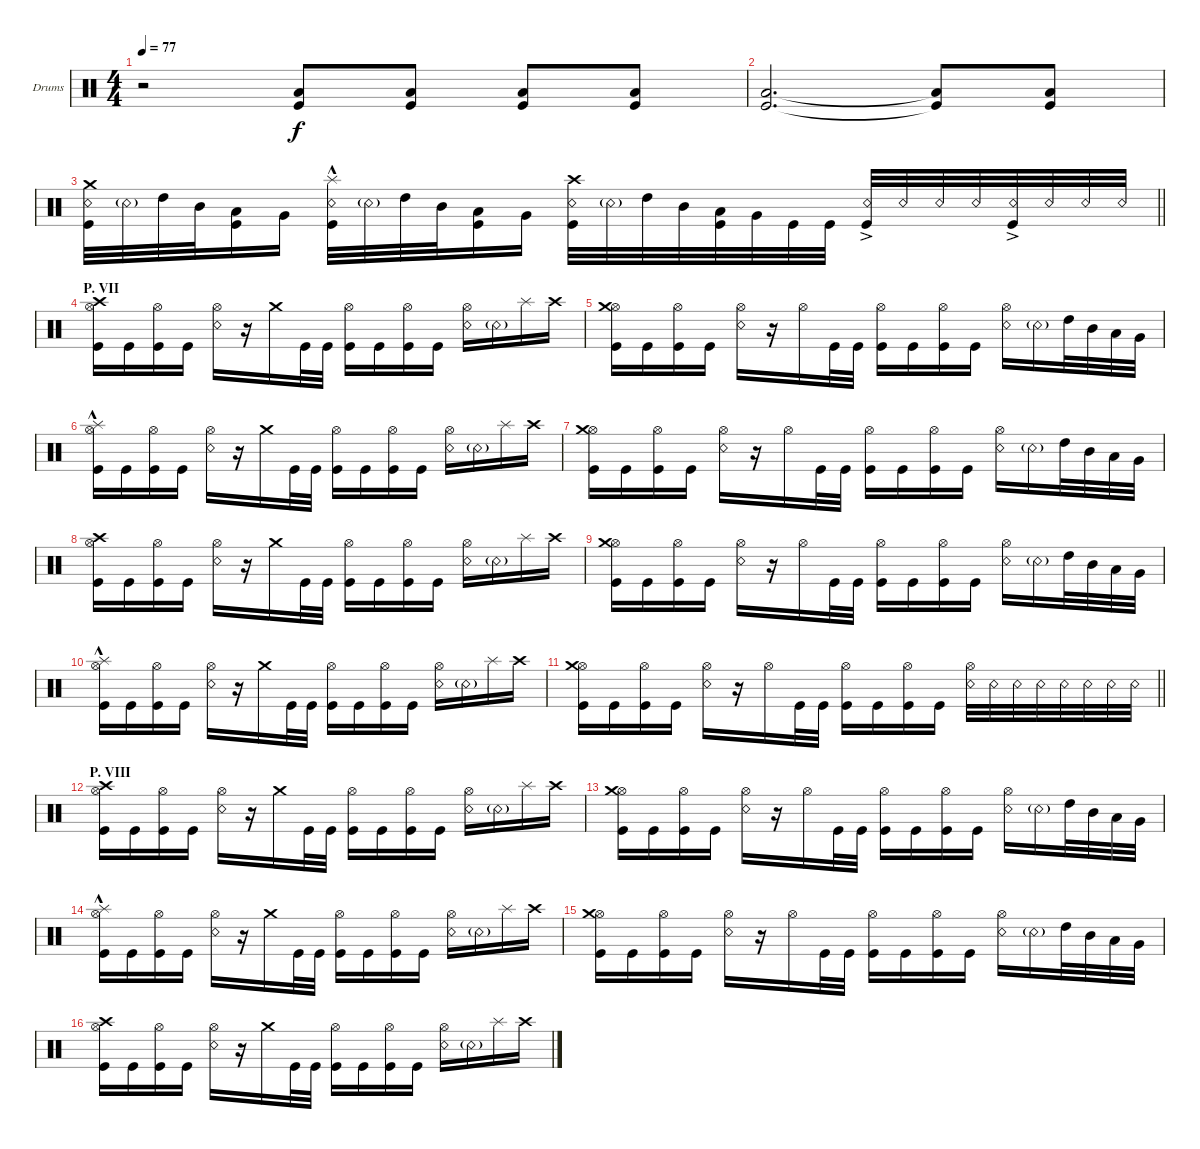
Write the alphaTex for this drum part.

\bracketExtendMode groupsimilarinstruments
\firstSystemTrackNameOrientation horizontal
\otherSystemsTrackNameOrientation horizontal
\track ("Drumkit" "Drums") {instrument percussion}
\staff {score}
\articulation defaults
\ts (4 4)
\tempo 77
\clef neutral
\ks c
r.2{dy f} ("Kick (hit)" "Low Tom (hit)").8 ("Kick (hit)" "Low Tom (hit)").8 ("Kick (hit)" "Low Tom (hit)").8 ("Kick (hit)" "Low Tom (hit)").8 |
("Kick (hit)" "Low Tom (hit)").2{d} ("Kick (hit)"{t} "Low Tom (hit)"{t}).8 ("Kick (hit)" "Low Tom (hit)").8 |
\barLineRight lightlight
("Snare (rim shot)" "Kick (hit)" "Crash medium (hit)").32 "Snare (rim shot)"{g}.32 "High Tom (hit)".32 "Mid Tom (hit)".32 ("Kick (hit)" "Low Tom (hit)").16 "Very Low Tom (hit)".16 ("Snare (rim shot)" "Kick (hit)" "Splash (hit)"{hac}).32 "Snare (rim shot)"{g}.32 "High Tom (hit)".32 "Mid Tom (hit)".32 ("Kick (hit)" "Low Tom (hit)").16 "Very Low Tom (hit)".16 ("Snare (rim shot)" "Kick (hit)" "Crash high (hit)").32 "Snare (rim shot)"{g}.32 "High Tom (hit)".32 "Mid Tom (hit)".32 ("Kick (hit)" "Low Tom (hit)").32 "Very Low Tom (hit)".32 "Kick (hit)".32 "Kick (hit)".32 ("Snare (rim shot)"{ac} "Kick (hit)").32 "Snare (rim shot)".32 "Snare (rim shot)".32 "Snare (rim shot)".32 ("Snare (rim shot)"{ac} "Kick (hit)").32 "Snare (rim shot)".32 "Snare (rim shot)".32 "Snare (rim shot)".32 |
\section ("" "P. VII")
("Hi-Hat (open)" "Kick (hit)" "Crash high (hit)").16 "Kick (hit)".16 ("Hi-Hat (open)" "Kick (hit)").16 "Kick (hit)".16 ("Hi-Hat (open)" "Snare (rim shot)").16 r.16 "Crash medium (hit)".16 "Kick (hit)".32 "Kick (hit)".32 ("Hi-Hat (open)" "Kick (hit)").16 "Kick (hit)".16 ("Hi-Hat (open)" "Kick (hit)").16 "Kick (hit)".16 ("Hi-Hat (open)" "Snare (rim shot)").16 "Snare (rim shot)"{g}.16 "Splash (hit)".16 "Crash high (hit)".16 |
("Hi-Hat (open)" "Kick (hit)" "Crash medium (hit)").16 "Kick (hit)".16 ("Hi-Hat (open)" "Kick (hit)").16 "Kick (hit)".16 ("Hi-Hat (open)" "Snare (rim shot)").16 r.16 "Hi-Hat (open)".16 "Kick (hit)".32 "Kick (hit)".32 ("Hi-Hat (open)" "Kick (hit)").16 "Kick (hit)".16 ("Hi-Hat (open)" "Kick (hit)").16 "Kick (hit)".16 ("Hi-Hat (open)" "Snare (rim shot)").16 "Snare (rim shot)"{g}.16 "High Tom (hit)".32 "Mid Tom (hit)".32 "Low Tom (hit)".32 "Very Low Tom (hit)".32 |
("Hi-Hat (open)" "Kick (hit)" "Splash (hit)"{hac}).16 "Kick (hit)".16 ("Hi-Hat (open)" "Kick (hit)").16 "Kick (hit)".16 ("Hi-Hat (open)" "Snare (rim shot)").16 r.16 "Crash medium (hit)".16 "Kick (hit)".32 "Kick (hit)".32 ("Hi-Hat (open)" "Kick (hit)").16 "Kick (hit)".16 ("Hi-Hat (open)" "Kick (hit)").16 "Kick (hit)".16 ("Hi-Hat (open)" "Snare (rim shot)").16 "Snare (rim shot)"{g}.16 "Splash (hit)".16 "Crash high (hit)".16 |
("Hi-Hat (open)" "Kick (hit)" "Crash medium (hit)").16 "Kick (hit)".16 ("Hi-Hat (open)" "Kick (hit)").16 "Kick (hit)".16 ("Hi-Hat (open)" "Snare (rim shot)").16 r.16 "Hi-Hat (open)".16 "Kick (hit)".32 "Kick (hit)".32 ("Hi-Hat (open)" "Kick (hit)").16 "Kick (hit)".16 ("Hi-Hat (open)" "Kick (hit)").16 "Kick (hit)".16 ("Hi-Hat (open)" "Snare (rim shot)").16 "Snare (rim shot)"{g}.16 "High Tom (hit)".32 "Mid Tom (hit)".32 "Low Tom (hit)".32 "Very Low Tom (hit)".32 |
("Hi-Hat (open)" "Kick (hit)" "Crash high (hit)").16 "Kick (hit)".16 ("Hi-Hat (open)" "Kick (hit)").16 "Kick (hit)".16 ("Hi-Hat (open)" "Snare (rim shot)").16 r.16 "Crash medium (hit)".16 "Kick (hit)".32 "Kick (hit)".32 ("Hi-Hat (open)" "Kick (hit)").16 "Kick (hit)".16 ("Hi-Hat (open)" "Kick (hit)").16 "Kick (hit)".16 ("Hi-Hat (open)" "Snare (rim shot)").16 "Snare (rim shot)"{g}.16 "Splash (hit)".16 "Crash high (hit)".16 |
("Hi-Hat (open)" "Kick (hit)" "Crash medium (hit)").16 "Kick (hit)".16 ("Hi-Hat (open)" "Kick (hit)").16 "Kick (hit)".16 ("Hi-Hat (open)" "Snare (rim shot)").16 r.16 "Hi-Hat (open)".16 "Kick (hit)".32 "Kick (hit)".32 ("Hi-Hat (open)" "Kick (hit)").16 "Kick (hit)".16 ("Hi-Hat (open)" "Kick (hit)").16 "Kick (hit)".16 ("Hi-Hat (open)" "Snare (rim shot)").16 "Snare (rim shot)"{g}.16 "High Tom (hit)".32 "Mid Tom (hit)".32 "Low Tom (hit)".32 "Very Low Tom (hit)".32 |
("Hi-Hat (open)" "Kick (hit)" "Splash (hit)"{hac}).16 "Kick (hit)".16 ("Hi-Hat (open)" "Kick (hit)").16 "Kick (hit)".16 ("Hi-Hat (open)" "Snare (rim shot)").16 r.16 "Crash medium (hit)".16 "Kick (hit)".32 "Kick (hit)".32 ("Hi-Hat (open)" "Kick (hit)").16 "Kick (hit)".16 ("Hi-Hat (open)" "Kick (hit)").16 "Kick (hit)".16 ("Hi-Hat (open)" "Snare (rim shot)").16 "Snare (rim shot)"{g}.16 "Splash (hit)".16 "Crash high (hit)".16 |
\barLineRight lightlight
("Hi-Hat (open)" "Kick (hit)" "Crash medium (hit)").16 "Kick (hit)".16 ("Hi-Hat (open)" "Kick (hit)").16 "Kick (hit)".16 ("Hi-Hat (open)" "Snare (rim shot)").16 r.16 "Hi-Hat (open)".16 "Kick (hit)".32 "Kick (hit)".32 ("Hi-Hat (open)" "Kick (hit)").16 "Kick (hit)".16 ("Hi-Hat (open)" "Kick (hit)").16 "Kick (hit)".16 ("Hi-Hat (open)" "Snare (rim shot)").32 "Snare (rim shot)".32 "Snare (rim shot)".32 "Snare (rim shot)".32 "Snare (rim shot)".32 "Snare (rim shot)".32 "Snare (rim shot)".32 "Snare (rim shot)".32 |
\section ("" "P. VIII")
("Hi-Hat (open)" "Kick (hit)" "Crash high (hit)").16 "Kick (hit)".16 ("Hi-Hat (open)" "Kick (hit)").16 "Kick (hit)".16 ("Hi-Hat (open)" "Snare (rim shot)").16 r.16 "Crash medium (hit)".16 "Kick (hit)".32 "Kick (hit)".32 ("Hi-Hat (open)" "Kick (hit)").16 "Kick (hit)".16 ("Hi-Hat (open)" "Kick (hit)").16 "Kick (hit)".16 ("Hi-Hat (open)" "Snare (rim shot)").16 "Snare (rim shot)"{g}.16 "Splash (hit)".16 "Crash high (hit)".16 |
("Hi-Hat (open)" "Kick (hit)" "Crash medium (hit)").16 "Kick (hit)".16 ("Hi-Hat (open)" "Kick (hit)").16 "Kick (hit)".16 ("Hi-Hat (open)" "Snare (rim shot)").16 r.16 "Hi-Hat (open)".16 "Kick (hit)".32 "Kick (hit)".32 ("Hi-Hat (open)" "Kick (hit)").16 "Kick (hit)".16 ("Hi-Hat (open)" "Kick (hit)").16 "Kick (hit)".16 ("Hi-Hat (open)" "Snare (rim shot)").16 "Snare (rim shot)"{g}.16 "High Tom (hit)".32 "Mid Tom (hit)".32 "Low Tom (hit)".32 "Very Low Tom (hit)".32 |
("Hi-Hat (open)" "Kick (hit)" "Splash (hit)"{hac}).16 "Kick (hit)".16 ("Hi-Hat (open)" "Kick (hit)").16 "Kick (hit)".16 ("Hi-Hat (open)" "Snare (rim shot)").16 r.16 "Crash medium (hit)".16 "Kick (hit)".32 "Kick (hit)".32 ("Hi-Hat (open)" "Kick (hit)").16 "Kick (hit)".16 ("Hi-Hat (open)" "Kick (hit)").16 "Kick (hit)".16 ("Hi-Hat (open)" "Snare (rim shot)").16 "Snare (rim shot)"{g}.16 "Splash (hit)".16 "Crash high (hit)".16 |
("Hi-Hat (open)" "Kick (hit)" "Crash medium (hit)").16 "Kick (hit)".16 ("Hi-Hat (open)" "Kick (hit)").16 "Kick (hit)".16 ("Hi-Hat (open)" "Snare (rim shot)").16 r.16 "Hi-Hat (open)".16 "Kick (hit)".32 "Kick (hit)".32 ("Hi-Hat (open)" "Kick (hit)").16 "Kick (hit)".16 ("Hi-Hat (open)" "Kick (hit)").16 "Kick (hit)".16 ("Hi-Hat (open)" "Snare (rim shot)").16 "Snare (rim shot)"{g}.16 "High Tom (hit)".32 "Mid Tom (hit)".32 "Low Tom (hit)".32 "Very Low Tom (hit)".32 |
("Hi-Hat (open)" "Kick (hit)" "Crash high (hit)").16 "Kick (hit)".16 ("Hi-Hat (open)" "Kick (hit)").16 "Kick (hit)".16 ("Hi-Hat (open)" "Snare (rim shot)").16 r.16 "Crash medium (hit)".16 "Kick (hit)".32 "Kick (hit)".32 ("Hi-Hat (open)" "Kick (hit)").16 "Kick (hit)".16 ("Hi-Hat (open)" "Kick (hit)").16 "Kick (hit)".16 ("Hi-Hat (open)" "Snare (rim shot)").16 "Snare (rim shot)"{g}.16 "Splash (hit)".16 "Crash high (hit)".16
